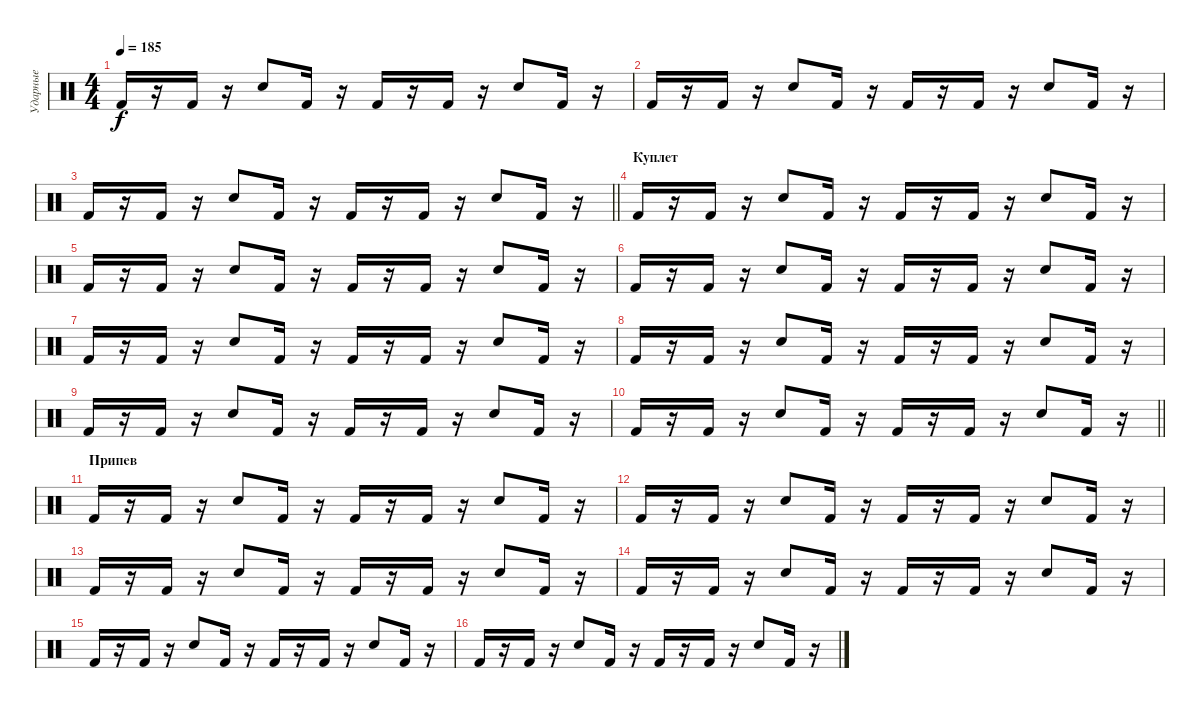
\track ("Ударные" "Ударные") {instrument percussion}
\staff {score}
\articulation defaults
\ts (4 4)
\tempo 185
\clef neutral
\ks c "Kick (hit) 2".16{dy f}
r.16 "Kick (hit) 2".16 r.16 "Electric Snare (hit)".8 "Kick (hit) 2".16 r.16 "Kick (hit) 2".16 r.16 "Kick (hit) 2".16 r.16 "Electric Snare (hit)".8 "Kick (hit) 2".16 r.16 |
"Kick (hit) 2".16 r.16 "Kick (hit) 2".16 r.16 "Electric Snare (hit)".8 "Kick (hit) 2".16 r.16 "Kick (hit) 2".16 r.16 "Kick (hit) 2".16 r.16 "Electric Snare (hit)".8 "Kick (hit) 2".16 r.16 |
\barLineRight lightlight "Kick (hit) 2".16
r.16 "Kick (hit) 2".16 r.16 "Electric Snare (hit)".8 "Kick (hit) 2".16 r.16 "Kick (hit) 2".16 r.16 "Kick (hit) 2".16 r.16 "Electric Snare (hit)".8 "Kick (hit) 2".16 r.16 |
\section ("" "Куплет")
"Kick (hit) 2".16 r.16 "Kick (hit) 2".16 r.16 "Electric Snare (hit)".8 "Kick (hit) 2".16 r.16 "Kick (hit) 2".16 r.16 "Kick (hit) 2".16 r.16 "Electric Snare (hit)".8 "Kick (hit) 2".16 r.16 |
"Kick (hit) 2".16 r.16 "Kick (hit) 2".16 r.16 "Electric Snare (hit)".8 "Kick (hit) 2".16 r.16 "Kick (hit) 2".16 r.16 "Kick (hit) 2".16 r.16 "Electric Snare (hit)".8 "Kick (hit) 2".16 r.16 |
"Kick (hit) 2".16 r.16 "Kick (hit) 2".16 r.16 "Electric Snare (hit)".8 "Kick (hit) 2".16 r.16 "Kick (hit) 2".16 r.16 "Kick (hit) 2".16 r.16 "Electric Snare (hit)".8 "Kick (hit) 2".16 r.16 |
"Kick (hit) 2".16 r.16 "Kick (hit) 2".16 r.16 "Electric Snare (hit)".8 "Kick (hit) 2".16 r.16 "Kick (hit) 2".16 r.16 "Kick (hit) 2".16 r.16 "Electric Snare (hit)".8 "Kick (hit) 2".16 r.16 |
"Kick (hit) 2".16 r.16 "Kick (hit) 2".16 r.16 "Electric Snare (hit)".8 "Kick (hit) 2".16 r.16 "Kick (hit) 2".16 r.16 "Kick (hit) 2".16 r.16 "Electric Snare (hit)".8 "Kick (hit) 2".16 r.16 |
"Kick (hit) 2".16 r.16 "Kick (hit) 2".16 r.16 "Electric Snare (hit)".8 "Kick (hit) 2".16 r.16 "Kick (hit) 2".16 r.16 "Kick (hit) 2".16 r.16 "Electric Snare (hit)".8 "Kick (hit) 2".16 r.16 |
\barLineRight lightlight "Kick (hit) 2".16
r.16 "Kick (hit) 2".16 r.16 "Electric Snare (hit)".8 "Kick (hit) 2".16 r.16 "Kick (hit) 2".16 r.16 "Kick (hit) 2".16 r.16 "Electric Snare (hit)".8 "Kick (hit) 2".16 r.16 |
\section ("" "Припев")
"Kick (hit) 2".16 r.16 "Kick (hit) 2".16 r.16 "Electric Snare (hit)".8 "Kick (hit) 2".16 r.16 "Kick (hit) 2".16 r.16 "Kick (hit) 2".16 r.16 "Electric Snare (hit)".8 "Kick (hit) 2".16 r.16 |
"Kick (hit) 2".16 r.16 "Kick (hit) 2".16 r.16 "Electric Snare (hit)".8 "Kick (hit) 2".16 r.16 "Kick (hit) 2".16 r.16 "Kick (hit) 2".16 r.16 "Electric Snare (hit)".8 "Kick (hit) 2".16 r.16 |
"Kick (hit) 2".16 r.16 "Kick (hit) 2".16 r.16 "Electric Snare (hit)".8 "Kick (hit) 2".16 r.16 "Kick (hit) 2".16 r.16 "Kick (hit) 2".16 r.16 "Electric Snare (hit)".8 "Kick (hit) 2".16 r.16 |
"Kick (hit) 2".16 r.16 "Kick (hit) 2".16 r.16 "Electric Snare (hit)".8 "Kick (hit) 2".16 r.16 "Kick (hit) 2".16 r.16 "Kick (hit) 2".16 r.16 "Electric Snare (hit)".8 "Kick (hit) 2".16 r.16 |
"Kick (hit) 2".16 r.16 "Kick (hit) 2".16 r.16 "Electric Snare (hit)".8 "Kick (hit) 2".16 r.16 "Kick (hit) 2".16 r.16 "Kick (hit) 2".16 r.16 "Electric Snare (hit)".8 "Kick (hit) 2".16 r.16 |
"Kick (hit) 2".16 r.16 "Kick (hit) 2".16 r.16 "Electric Snare (hit)".8 "Kick (hit) 2".16 r.16 "Kick (hit) 2".16 r.16 "Kick (hit) 2".16 r.16 "Electric Snare (hit)".8 "Kick (hit) 2".16 r.16
